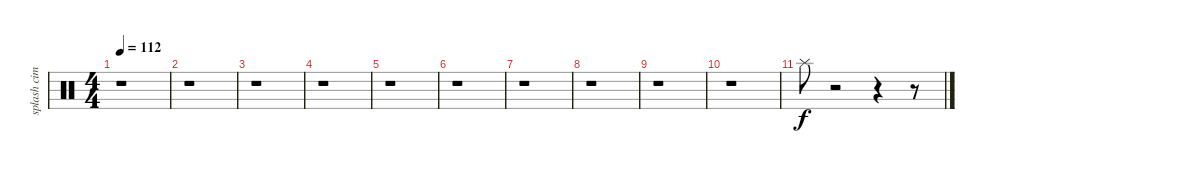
\track ("splash cimbal" "splash cim") {instrument percussion}
\staff {score}
\articulation defaults
\ts (4 4)
\tempo 112
\clef neutral
\ks c
r.1{dy f} |
r.1 |
r.1 |
r.1 |
r.1 |
r.1 |
r.1 |
r.1 |
r.1 |
r.1 |
"Splash (hit)".8 r.2 r.4 r.8
